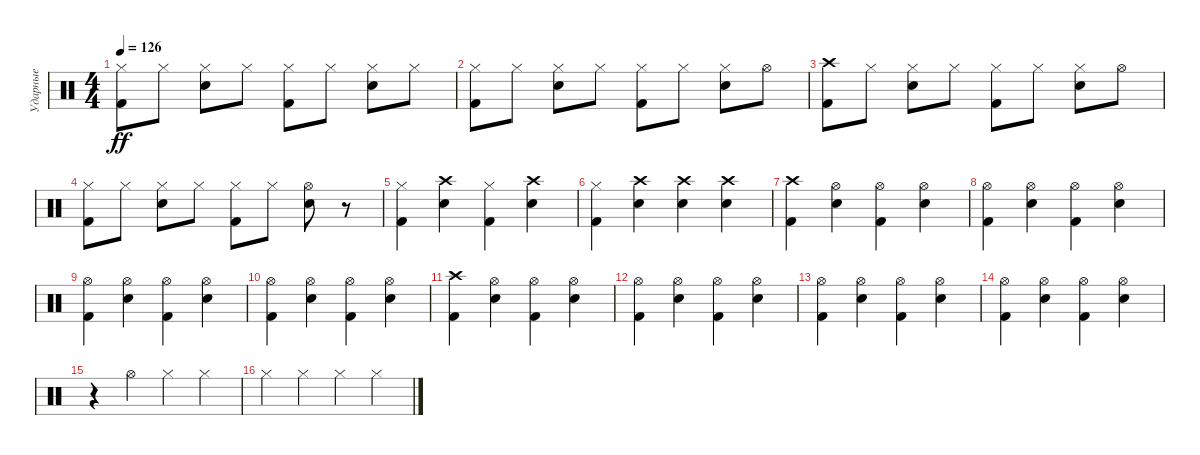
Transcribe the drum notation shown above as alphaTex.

\track ("Ударные" "Ударные") {instrument percussion}
\staff {score}
\articulation defaults
\ts (4 4)
\tempo 126
\clef neutral
\ks c
("Hi-Hat (closed)" "Kick (hit) 2").8{dy ff} "Hi-Hat (closed)".8 ("Hi-Hat (closed)" "Electric Snare (hit)").8 "Hi-Hat (closed)".8 ("Hi-Hat (closed)" "Kick (hit) 2").8 "Hi-Hat (closed)".8 ("Electric Snare (hit)" "Hi-Hat (closed)").8 "Hi-Hat (closed)".8 |
("Hi-Hat (closed)" "Kick (hit) 2").8 "Hi-Hat (closed)".8 ("Hi-Hat (closed)" "Electric Snare (hit)").8 "Hi-Hat (closed)".8 ("Hi-Hat (closed)" "Kick (hit) 2").8 "Hi-Hat (closed)".8 ("Electric Snare (hit)" "Hi-Hat (closed)").8 "Hi-Hat (open)".8 |
("Crash high (hit)" "Kick (hit) 2").8 "Hi-Hat (closed)".8 ("Hi-Hat (closed)" "Electric Snare (hit)").8 "Hi-Hat (closed)".8 ("Hi-Hat (closed)" "Kick (hit) 2").8 "Hi-Hat (closed)".8 ("Electric Snare (hit)" "Hi-Hat (closed)").8 "Hi-Hat (open)".8 |
("Hi-Hat (closed)" "Kick (hit) 2").8 "Hi-Hat (closed)".8 ("Hi-Hat (closed)" "Electric Snare (hit)").8 "Hi-Hat (closed)".8 ("Hi-Hat (closed)" "Kick (hit) 2").8 "Hi-Hat (closed)".8 ("Electric Snare (hit)" "Hi-Hat (open)").8 r.8 |
("Kick (hit) 2" "Hi-Hat (closed)").4 ("Crash high (hit)" "Electric Snare (hit)").4 ("Kick (hit) 2" "Hi-Hat (closed)").4 ("Electric Snare (hit)" "Crash high (hit)").4 |
("Kick (hit) 2" "Hi-Hat (closed)").4 ("Crash high (hit)" "Electric Snare (hit)").4 ("Electric Snare (hit)" "Crash high (hit)").4 ("Electric Snare (hit)" "Crash high (hit)").4 |
("Crash high (hit)" "Kick (hit) 2").4 ("Hi-Hat (open)" "Electric Snare (hit)").4 ("Hi-Hat (open)" "Kick (hit) 2").4 ("Hi-Hat (open)" "Electric Snare (hit)").4 |
("Hi-Hat (open)" "Kick (hit) 2").4 ("Hi-Hat (open)" "Electric Snare (hit)").4 ("Hi-Hat (open)" "Kick (hit) 2").4 ("Hi-Hat (open)" "Electric Snare (hit)").4 |
("Hi-Hat (open)" "Kick (hit) 2").4 ("Hi-Hat (open)" "Electric Snare (hit)").4 ("Hi-Hat (open)" "Kick (hit) 2").4 ("Hi-Hat (open)" "Electric Snare (hit)").4 |
("Hi-Hat (open)" "Kick (hit) 2").4 ("Hi-Hat (open)" "Electric Snare (hit)").4 ("Hi-Hat (open)" "Kick (hit) 2").4 ("Hi-Hat (open)" "Electric Snare (hit)").4 |
("Crash high (hit)" "Kick (hit) 2").4 ("Hi-Hat (open)" "Electric Snare (hit)").4 ("Hi-Hat (open)" "Kick (hit) 2").4 ("Hi-Hat (open)" "Electric Snare (hit)").4 |
("Hi-Hat (open)" "Kick (hit) 2").4 ("Hi-Hat (open)" "Electric Snare (hit)").4 ("Hi-Hat (open)" "Kick (hit) 2").4 ("Hi-Hat (open)" "Electric Snare (hit)").4 |
("Hi-Hat (open)" "Kick (hit) 2").4 ("Hi-Hat (open)" "Electric Snare (hit)").4 ("Hi-Hat (open)" "Kick (hit) 2").4 ("Hi-Hat (open)" "Electric Snare (hit)").4 |
("Hi-Hat (open)" "Kick (hit) 2").4 ("Hi-Hat (open)" "Electric Snare (hit)").4 ("Hi-Hat (open)" "Kick (hit) 2").4 ("Hi-Hat (open)" "Electric Snare (hit)").4 |
r.4 "Hi-Hat (open)".4 "Hi-Hat (closed)".4 "Hi-Hat (closed)".4 |
"Hi-Hat (closed)".4 "Hi-Hat (closed)".4 "Hi-Hat (closed)".4 "Hi-Hat (closed)".4
